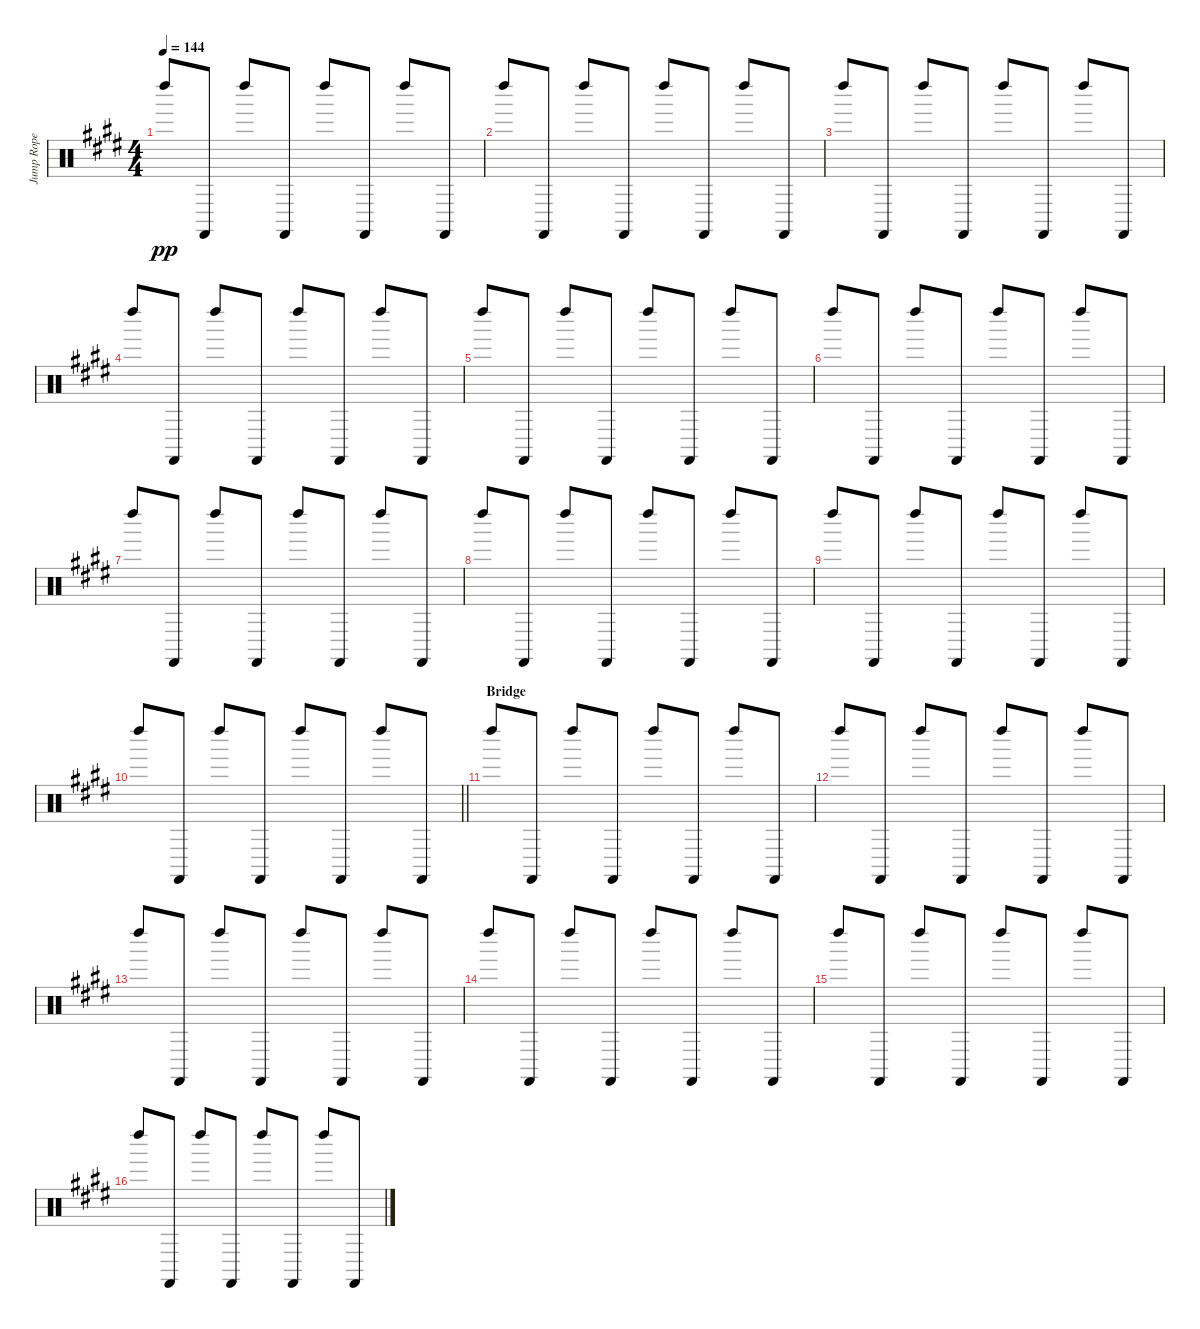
\track ("Jump Rope" "Jump Rope") {instrument percussion}
\staff {score}
\articulation defaults
\ts (4 4)
\tempo 144
\clef neutral
\ks e "Left Maraca (hit)".8{dy pp} "Castanets (hit)".8 "Left Maraca (hit)".8 "Castanets (hit)".8 "Left Maraca (hit)".8 "Castanets (hit)".8 "Left Maraca (hit)".8 "Castanets (hit)".8
|
"Left Maraca (hit)".8 "Castanets (hit)".8 "Left Maraca (hit)".8 "Castanets (hit)".8 "Left Maraca (hit)".8 "Castanets (hit)".8 "Left Maraca (hit)".8 "Castanets (hit)".8 |
"Left Maraca (hit)".8 "Castanets (hit)".8 "Left Maraca (hit)".8 "Castanets (hit)".8 "Left Maraca (hit)".8 "Castanets (hit)".8 "Left Maraca (hit)".8 "Castanets (hit)".8 |
"Left Maraca (hit)".8 "Castanets (hit)".8 "Left Maraca (hit)".8 "Castanets (hit)".8 "Left Maraca (hit)".8 "Castanets (hit)".8 "Left Maraca (hit)".8 "Castanets (hit)".8 |
"Left Maraca (hit)".8 "Castanets (hit)".8 "Left Maraca (hit)".8 "Castanets (hit)".8 "Left Maraca (hit)".8 "Castanets (hit)".8 "Left Maraca (hit)".8 "Castanets (hit)".8 |
"Left Maraca (hit)".8 "Castanets (hit)".8 "Left Maraca (hit)".8 "Castanets (hit)".8 "Left Maraca (hit)".8 "Castanets (hit)".8 "Left Maraca (hit)".8 "Castanets (hit)".8 |
"Left Maraca (hit)".8 "Castanets (hit)".8 "Left Maraca (hit)".8 "Castanets (hit)".8 "Left Maraca (hit)".8 "Castanets (hit)".8 "Left Maraca (hit)".8 "Castanets (hit)".8 |
"Left Maraca (hit)".8 "Castanets (hit)".8 "Left Maraca (hit)".8 "Castanets (hit)".8 "Left Maraca (hit)".8 "Castanets (hit)".8 "Left Maraca (hit)".8 "Castanets (hit)".8 |
"Left Maraca (hit)".8 "Castanets (hit)".8 "Left Maraca (hit)".8 "Castanets (hit)".8 "Left Maraca (hit)".8 "Castanets (hit)".8 "Left Maraca (hit)".8 "Castanets (hit)".8 |
\barLineRight lightlight "Left Maraca (hit)".8 "Castanets (hit)".8 "Left Maraca (hit)".8 "Castanets (hit)".8 "Left Maraca (hit)".8 "Castanets (hit)".8 "Left Maraca (hit)".8 "Castanets (hit)".8
|
\section ("" "Bridge")
"Left Maraca (hit)".8 "Castanets (hit)".8 "Left Maraca (hit)".8 "Castanets (hit)".8 "Left Maraca (hit)".8 "Castanets (hit)".8 "Left Maraca (hit)".8 "Castanets (hit)".8 |
"Left Maraca (hit)".8 "Castanets (hit)".8 "Left Maraca (hit)".8 "Castanets (hit)".8 "Left Maraca (hit)".8 "Castanets (hit)".8 "Left Maraca (hit)".8 "Castanets (hit)".8 |
"Left Maraca (hit)".8 "Castanets (hit)".8 "Left Maraca (hit)".8 "Castanets (hit)".8 "Left Maraca (hit)".8 "Castanets (hit)".8 "Left Maraca (hit)".8 "Castanets (hit)".8 |
"Left Maraca (hit)".8 "Castanets (hit)".8 "Left Maraca (hit)".8 "Castanets (hit)".8 "Left Maraca (hit)".8 "Castanets (hit)".8 "Left Maraca (hit)".8 "Castanets (hit)".8 |
"Left Maraca (hit)".8 "Castanets (hit)".8 "Left Maraca (hit)".8 "Castanets (hit)".8 "Left Maraca (hit)".8 "Castanets (hit)".8 "Left Maraca (hit)".8 "Castanets (hit)".8 |
"Left Maraca (hit)".8 "Castanets (hit)".8 "Left Maraca (hit)".8 "Castanets (hit)".8 "Left Maraca (hit)".8 "Castanets (hit)".8 "Left Maraca (hit)".8 "Castanets (hit)".8
